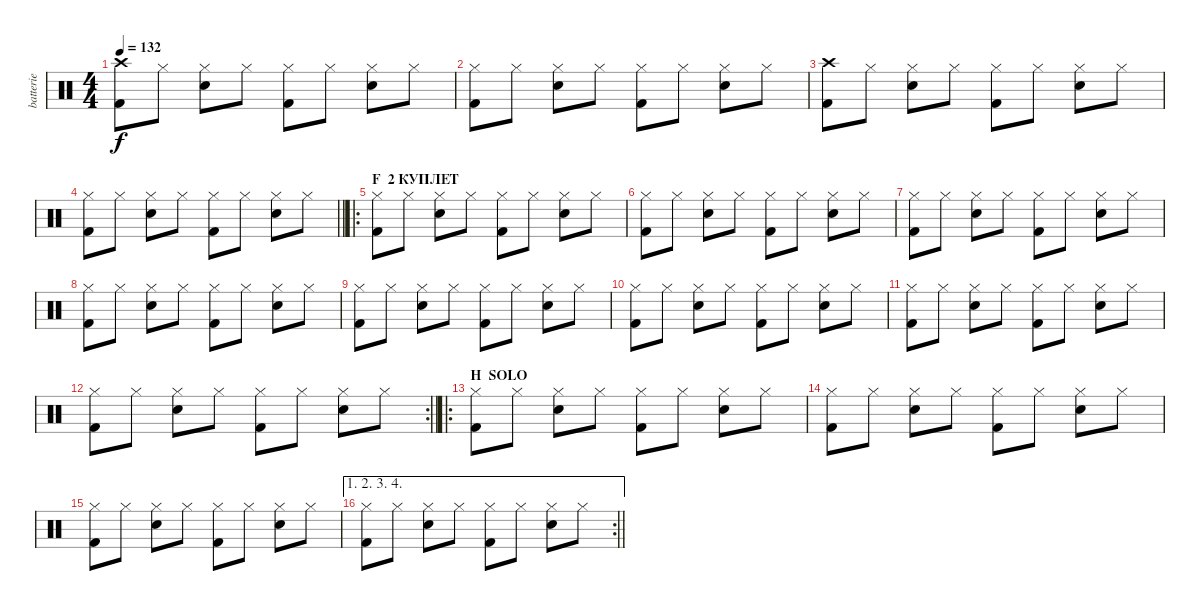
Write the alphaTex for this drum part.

\track ("batterie" "batterie") {instrument percussion}
\staff {score}
\articulation defaults
\ts (4 4)
\tempo 132
\clef neutral
\ks c
("Crash high (hit)" "Kick (hit) 2").8{dy f} "Hi-Hat (closed)".8 ("Hi-Hat (closed)" "Electric Snare (hit)").8 "Hi-Hat (closed)".8 ("Hi-Hat (closed)" "Kick (hit) 2").8 "Hi-Hat (closed)".8 ("Hi-Hat (closed)" "Electric Snare (hit)").8 "Hi-Hat (closed)".8 |
("Hi-Hat (closed)" "Kick (hit) 2").8 "Hi-Hat (closed)".8 ("Hi-Hat (closed)" "Electric Snare (hit)").8 "Hi-Hat (closed)".8 ("Hi-Hat (closed)" "Kick (hit) 2").8 "Hi-Hat (closed)".8 ("Hi-Hat (closed)" "Electric Snare (hit)").8 "Hi-Hat (closed)".8 |
("Crash high (hit)" "Kick (hit) 2").8 "Hi-Hat (closed)".8 ("Hi-Hat (closed)" "Electric Snare (hit)").8 "Hi-Hat (closed)".8 ("Hi-Hat (closed)" "Kick (hit) 2").8 "Hi-Hat (closed)".8 ("Hi-Hat (closed)" "Electric Snare (hit)").8 "Hi-Hat (closed)".8 |
\barLineRight lightlight
("Hi-Hat (closed)" "Kick (hit) 2").8 "Hi-Hat (closed)".8 ("Hi-Hat (closed)" "Electric Snare (hit)").8 "Hi-Hat (closed)".8 ("Hi-Hat (closed)" "Kick (hit) 2").8 "Hi-Hat (closed)".8 ("Hi-Hat (closed)" "Electric Snare (hit)").8 "Hi-Hat (closed)".8 |
\ro
\section ("" "F  2 КУПЛЕТ")
("Hi-Hat (closed)" "Kick (hit) 2").8 "Hi-Hat (closed)".8 ("Hi-Hat (closed)" "Electric Snare (hit)").8 "Hi-Hat (closed)".8 ("Hi-Hat (closed)" "Kick (hit) 2").8 "Hi-Hat (closed)".8 ("Hi-Hat (closed)" "Electric Snare (hit)").8 "Hi-Hat (closed)".8 |
("Hi-Hat (closed)" "Kick (hit) 2").8 "Hi-Hat (closed)".8 ("Hi-Hat (closed)" "Electric Snare (hit)").8 "Hi-Hat (closed)".8 ("Hi-Hat (closed)" "Kick (hit) 2").8 "Hi-Hat (closed)".8 ("Hi-Hat (closed)" "Electric Snare (hit)").8 "Hi-Hat (closed)".8 |
("Hi-Hat (closed)" "Kick (hit) 2").8 "Hi-Hat (closed)".8 ("Hi-Hat (closed)" "Electric Snare (hit)").8 "Hi-Hat (closed)".8 ("Hi-Hat (closed)" "Kick (hit) 2").8 "Hi-Hat (closed)".8 ("Hi-Hat (closed)" "Electric Snare (hit)").8 "Hi-Hat (closed)".8 |
("Hi-Hat (closed)" "Kick (hit) 2").8 "Hi-Hat (closed)".8 ("Hi-Hat (closed)" "Electric Snare (hit)").8 "Hi-Hat (closed)".8 ("Hi-Hat (closed)" "Kick (hit) 2").8 "Hi-Hat (closed)".8 ("Hi-Hat (closed)" "Electric Snare (hit)").8 "Hi-Hat (closed)".8 |
("Hi-Hat (closed)" "Kick (hit) 2").8 "Hi-Hat (closed)".8 ("Hi-Hat (closed)" "Electric Snare (hit)").8 "Hi-Hat (closed)".8 ("Hi-Hat (closed)" "Kick (hit) 2").8 "Hi-Hat (closed)".8 ("Hi-Hat (closed)" "Electric Snare (hit)").8 "Hi-Hat (closed)".8 |
("Hi-Hat (closed)" "Kick (hit) 2").8 "Hi-Hat (closed)".8 ("Hi-Hat (closed)" "Electric Snare (hit)").8 "Hi-Hat (closed)".8 ("Hi-Hat (closed)" "Kick (hit) 2").8 "Hi-Hat (closed)".8 ("Hi-Hat (closed)" "Electric Snare (hit)").8 "Hi-Hat (closed)".8 |
("Hi-Hat (closed)" "Kick (hit) 2").8 "Hi-Hat (closed)".8 ("Hi-Hat (closed)" "Electric Snare (hit)").8 "Hi-Hat (closed)".8 ("Hi-Hat (closed)" "Kick (hit) 2").8 "Hi-Hat (closed)".8 ("Hi-Hat (closed)" "Electric Snare (hit)").8 "Hi-Hat (closed)".8 |
\rc 2
\barLineRight lightlight
("Hi-Hat (closed)" "Kick (hit) 2").8 "Hi-Hat (closed)".8 ("Hi-Hat (closed)" "Electric Snare (hit)").8 "Hi-Hat (closed)".8 ("Hi-Hat (closed)" "Kick (hit) 2").8 "Hi-Hat (closed)".8 ("Hi-Hat (closed)" "Electric Snare (hit)").8 "Hi-Hat (closed)".8 |
\ro
\section ("" "H  SOLO")
("Hi-Hat (closed)" "Kick (hit) 2").8 "Hi-Hat (closed)".8 ("Hi-Hat (closed)" "Electric Snare (hit)").8 "Hi-Hat (closed)".8 ("Hi-Hat (closed)" "Kick (hit) 2").8 "Hi-Hat (closed)".8 ("Hi-Hat (closed)" "Electric Snare (hit)").8 "Hi-Hat (closed)".8 |
("Hi-Hat (closed)" "Kick (hit) 2").8 "Hi-Hat (closed)".8 ("Hi-Hat (closed)" "Electric Snare (hit)").8 "Hi-Hat (closed)".8 ("Hi-Hat (closed)" "Kick (hit) 2").8 "Hi-Hat (closed)".8 ("Hi-Hat (closed)" "Electric Snare (hit)").8 "Hi-Hat (closed)".8 |
("Hi-Hat (closed)" "Kick (hit) 2").8 "Hi-Hat (closed)".8 ("Hi-Hat (closed)" "Electric Snare (hit)").8 "Hi-Hat (closed)".8 ("Hi-Hat (closed)" "Kick (hit) 2").8 "Hi-Hat (closed)".8 ("Hi-Hat (closed)" "Electric Snare (hit)").8 "Hi-Hat (closed)".8 |
\ae (1 2 3 4)
\rc 2
\barLineRight lightlight
("Hi-Hat (closed)" "Kick (hit) 2").8 "Hi-Hat (closed)".8 ("Hi-Hat (closed)" "Electric Snare (hit)").8 "Hi-Hat (closed)".8 ("Hi-Hat (closed)" "Kick (hit) 2").8 "Hi-Hat (closed)".8 ("Hi-Hat (closed)" "Electric Snare (hit)").8 "Hi-Hat (closed)".8
